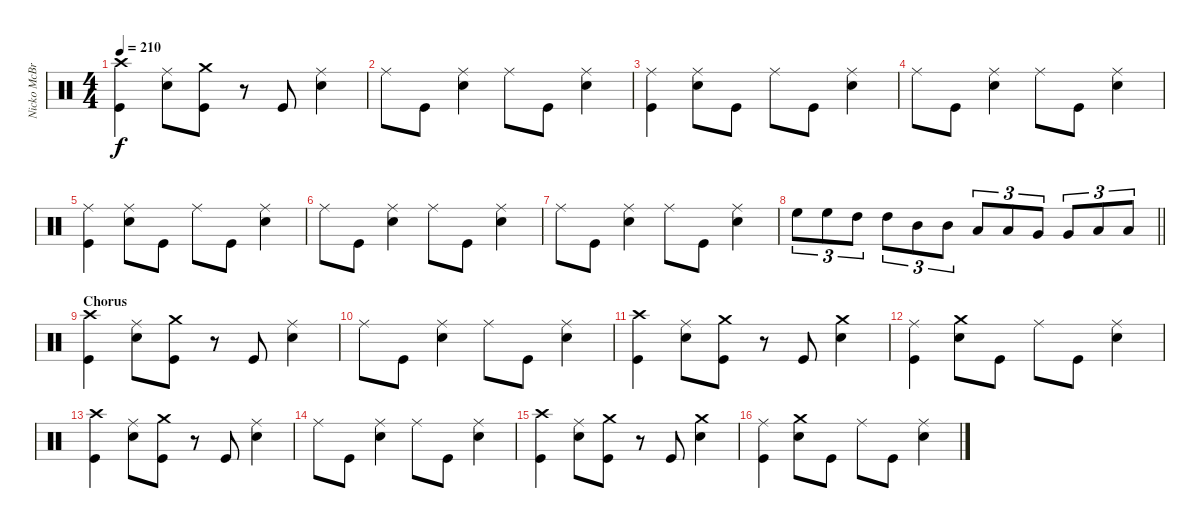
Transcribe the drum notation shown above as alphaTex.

\track ("Nicko McBrain" "Nicko McBr") {instrument percussion}
\staff {score}
\articulation defaults
\ts (4 4)
\tempo 210
\clef neutral
\ks c
("Crash high (hit)" "Kick (hit)").4{dy f} ("Ride (middle)" "Snare (hit) 2").8 ("Crash medium (hit)" "Kick (hit)").8 r.8 "Kick (hit)".8 ("Ride (middle)" "Snare (hit) 2").4 |
"Ride (middle)".8 "Kick (hit)".8 ("Ride (middle)" "Snare (hit) 2").4 "Ride (middle)".8 "Kick (hit)".8 ("Ride (middle)" "Snare (hit) 2").4 |
("Ride (middle)" "Kick (hit)").4 ("Ride (middle)" "Snare (hit) 2").8 "Kick (hit)".8 "Ride (middle)".8 "Kick (hit)".8 ("Ride (middle)" "Snare (hit) 2").4 |
"Ride (middle)".8 "Kick (hit)".8 ("Ride (middle)" "Snare (hit) 2").4 "Ride (middle)".8 "Kick (hit)".8 ("Ride (middle)" "Snare (hit) 2").4 |
("Ride (middle)" "Kick (hit)").4 ("Ride (middle)" "Snare (hit) 2").8 "Kick (hit)".8 "Ride (middle)".8 "Kick (hit)".8 ("Ride (middle)" "Snare (hit) 2").4 |
"Ride (middle)".8 "Kick (hit)".8 ("Ride (middle)" "Snare (hit) 2").4 "Ride (middle)".8 "Kick (hit)".8 ("Ride (middle)" "Snare (hit) 2").4 |
"Ride (middle)".8 "Kick (hit)".8 ("Ride (middle)" "Snare (hit) 2").4 "Ride (middle)".8 "Kick (hit)".8 ("Ride (middle)" "Snare (hit) 2").4 |
\barLineRight lightlight "High Floor Tom (hit)".8{tu (3 2)} "High Floor Tom (hit)".8{tu (3 2)} "High Tom (hit)".8{tu (3 2)} "High Tom (hit)".8{tu (3 2)} "Mid Tom (hit)".8{tu (3 2)} "Mid Tom (hit)".8{tu (3 2)} "Low Tom (hit)".8{tu (3 2)} "Low Tom (hit)".8{tu (3 2)} "Very Low Tom (hit)".8{tu (3 2)} "Very Low Tom (hit)".8{tu (3 2)} "Low Floor Tom (hit)".8{tu (3 2)} "Low Floor Tom (hit)".8{tu (3 2)}
|
\section ("" "Chorus")
("Crash high (hit)" "Kick (hit)").4 ("Ride (middle)" "Snare (hit) 2").8 ("Crash medium (hit)" "Kick (hit)").8 r.8 "Kick (hit)".8 ("Ride (middle)" "Snare (hit) 2").4 |
"Ride (middle)".8 "Kick (hit)".8 ("Ride (middle)" "Snare (hit) 2").4 "Ride (middle)".8 "Kick (hit)".8 ("Ride (middle)" "Snare (hit) 2").4 |
("Crash high (hit)" "Kick (hit)").4 ("Ride (middle)" "Snare (hit) 2").8 ("Crash medium (hit)" "Kick (hit)").8 r.8 "Kick (hit)".8 ("Crash medium (hit)" "Snare (hit) 2").4 |
("Ride (middle)" "Kick (hit)").4 ("Crash medium (hit)" "Snare (hit) 2").8 "Kick (hit)".8 "Ride (middle)".8 "Kick (hit)".8 ("Ride (middle)" "Snare (hit) 2").4 |
("Crash high (hit)" "Kick (hit)").4 ("Ride (middle)" "Snare (hit) 2").8 ("Crash medium (hit)" "Kick (hit)").8 r.8 "Kick (hit)".8 ("Ride (middle)" "Snare (hit) 2").4 |
"Ride (middle)".8 "Kick (hit)".8 ("Ride (middle)" "Snare (hit) 2").4 "Ride (middle)".8 "Kick (hit)".8 ("Ride (middle)" "Snare (hit) 2").4 |
("Crash high (hit)" "Kick (hit)").4 ("Ride (middle)" "Snare (hit) 2").8 ("Crash medium (hit)" "Kick (hit)").8 r.8 "Kick (hit)".8 ("Crash medium (hit)" "Snare (hit) 2").4 |
("Ride (middle)" "Kick (hit)").4 ("Crash medium (hit)" "Snare (hit) 2").8 "Kick (hit)".8 "Ride (middle)".8 "Kick (hit)".8 ("Ride (middle)" "Snare (hit) 2").4
